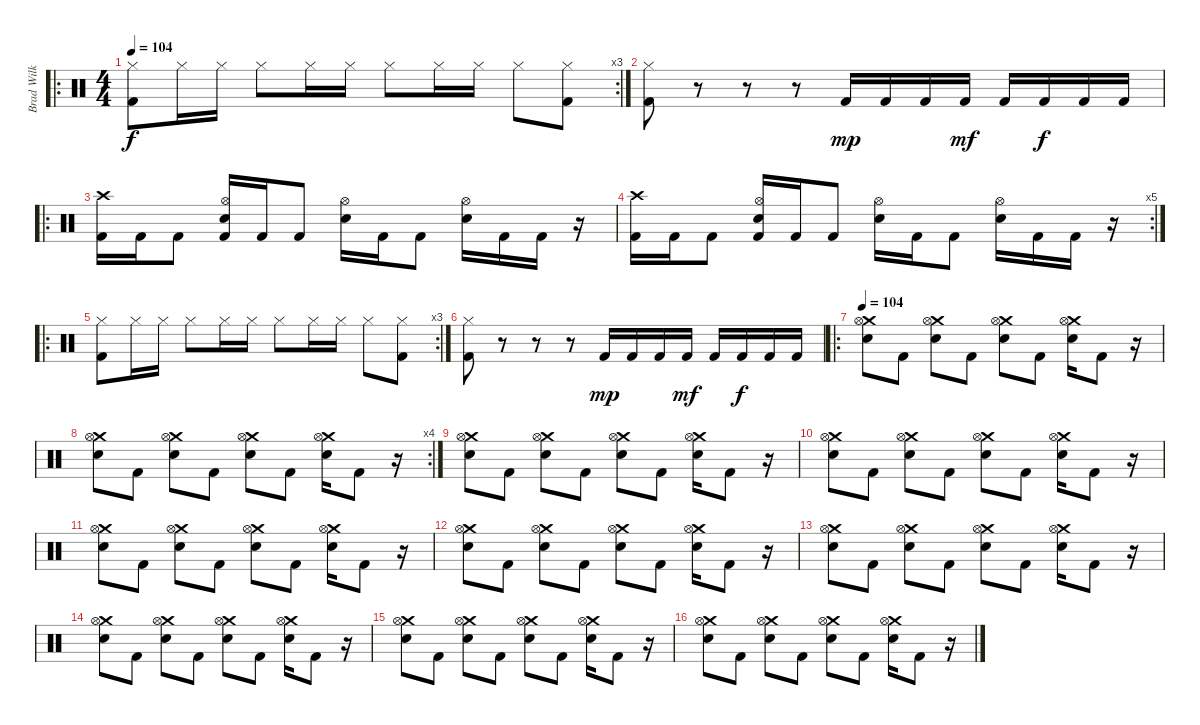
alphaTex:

\track ("Brad Wilk" "Brad Wilk") {instrument percussion}
\staff {score}
\articulation defaults
\ro
\rc 3
\ts (4 4)
\tempo 104
\clef neutral
\ks c
("Hi-Hat (closed)" "Kick (hit) 2").8{dy f} "Hi-Hat (closed)".16 "Hi-Hat (closed)".16 "Hi-Hat (closed)".8 "Hi-Hat (closed)".16 "Hi-Hat (closed)".16 "Hi-Hat (closed)".8 "Hi-Hat (closed)".16 "Hi-Hat (closed)".16 "Hi-Hat (closed)".8 ("Hi-Hat (closed)" "Kick (hit) 2").8 |
("Hi-Hat (closed)" "Kick (hit) 2").8 r.8 r.8 r.8 "Kick (hit) 2".16{dy mp} "Kick (hit) 2".16 "Kick (hit) 2".16 "Kick (hit) 2".16{dy mf} "Kick (hit) 2".16 "Kick (hit) 2".16{dy f} "Kick (hit) 2".16 "Kick (hit) 2".16 |
\ro
("Crash high (hit)" "Kick (hit) 2").16 "Kick (hit) 2".16 "Kick (hit) 2".8 ("Hi-Hat (open)" "Electric Snare (hit)" "Kick (hit) 2").16 "Kick (hit) 2".16 "Kick (hit) 2".8 ("Hi-Hat (open)" "Electric Snare (hit)").16 "Kick (hit) 2".16 "Kick (hit) 2".8 ("Hi-Hat (open)" "Electric Snare (hit)").16 "Kick (hit) 2".16 "Kick (hit) 2".16 r.16 |
\rc 5
("Crash high (hit)" "Kick (hit) 2").16 "Kick (hit) 2".16 "Kick (hit) 2".8 ("Hi-Hat (open)" "Electric Snare (hit)" "Kick (hit) 2").16 "Kick (hit) 2".16 "Kick (hit) 2".8 ("Hi-Hat (open)" "Electric Snare (hit)").16 "Kick (hit) 2".16 "Kick (hit) 2".8 ("Hi-Hat (open)" "Electric Snare (hit)").16 "Kick (hit) 2".16 "Kick (hit) 2".16 r.16 |
\ro
\rc 3
("Hi-Hat (closed)" "Kick (hit) 2").8 "Hi-Hat (closed)".16 "Hi-Hat (closed)".16 "Hi-Hat (closed)".8 "Hi-Hat (closed)".16 "Hi-Hat (closed)".16 "Hi-Hat (closed)".8 "Hi-Hat (closed)".16 "Hi-Hat (closed)".16 "Hi-Hat (closed)".8 ("Hi-Hat (closed)" "Kick (hit) 2").8 |
("Hi-Hat (closed)" "Kick (hit) 2").8 r.8 r.8 r.8 "Kick (hit) 2".16{dy mp} "Kick (hit) 2".16 "Kick (hit) 2".16 "Kick (hit) 2".16{dy mf} "Kick (hit) 2".16 "Kick (hit) 2".16{dy f} "Kick (hit) 2".16 "Kick (hit) 2".16 |
\ro
\tempo 104
("Crash medium (hit)" "Hi-Hat (open)" "Electric Snare (hit)").8 "Kick (hit) 2".8 ("Crash medium (hit)" "Hi-Hat (open)" "Electric Snare (hit)").8 "Kick (hit) 2".8 ("Crash medium (hit)" "Hi-Hat (open)" "Electric Snare (hit)").8 "Kick (hit) 2".8 ("Crash medium (hit)" "Hi-Hat (open)" "Electric Snare (hit)").16 "Kick (hit) 2".8 r.16 |
\rc 4
("Crash medium (hit)" "Hi-Hat (open)" "Electric Snare (hit)").8 "Kick (hit) 2".8 ("Crash medium (hit)" "Hi-Hat (open)" "Electric Snare (hit)").8 "Kick (hit) 2".8 ("Crash medium (hit)" "Hi-Hat (open)" "Electric Snare (hit)").8 "Kick (hit) 2".8 ("Crash medium (hit)" "Hi-Hat (open)" "Electric Snare (hit)").16 "Kick (hit) 2".8 r.16 |
("Crash medium (hit)" "Hi-Hat (open)" "Electric Snare (hit)").8 "Kick (hit) 2".8 ("Crash medium (hit)" "Hi-Hat (open)" "Electric Snare (hit)").8 "Kick (hit) 2".8 ("Crash medium (hit)" "Hi-Hat (open)" "Electric Snare (hit)").8 "Kick (hit) 2".8 ("Crash medium (hit)" "Hi-Hat (open)" "Electric Snare (hit)").16 "Kick (hit) 2".8 r.16 |
("Crash medium (hit)" "Hi-Hat (open)" "Electric Snare (hit)").8 "Kick (hit) 2".8 ("Crash medium (hit)" "Hi-Hat (open)" "Electric Snare (hit)").8 "Kick (hit) 2".8 ("Crash medium (hit)" "Hi-Hat (open)" "Electric Snare (hit)").8 "Kick (hit) 2".8 ("Crash medium (hit)" "Hi-Hat (open)" "Electric Snare (hit)").16 "Kick (hit) 2".8 r.16 |
("Crash medium (hit)" "Hi-Hat (open)" "Electric Snare (hit)").8 "Kick (hit) 2".8 ("Crash medium (hit)" "Hi-Hat (open)" "Electric Snare (hit)").8 "Kick (hit) 2".8 ("Crash medium (hit)" "Hi-Hat (open)" "Electric Snare (hit)").8 "Kick (hit) 2".8 ("Crash medium (hit)" "Hi-Hat (open)" "Electric Snare (hit)").16 "Kick (hit) 2".8 r.16 |
("Crash medium (hit)" "Hi-Hat (open)" "Electric Snare (hit)").8 "Kick (hit) 2".8 ("Crash medium (hit)" "Hi-Hat (open)" "Electric Snare (hit)").8 "Kick (hit) 2".8 ("Crash medium (hit)" "Hi-Hat (open)" "Electric Snare (hit)").8 "Kick (hit) 2".8 ("Crash medium (hit)" "Hi-Hat (open)" "Electric Snare (hit)").16 "Kick (hit) 2".8 r.16 |
("Crash medium (hit)" "Hi-Hat (open)" "Electric Snare (hit)").8 "Kick (hit) 2".8 ("Crash medium (hit)" "Hi-Hat (open)" "Electric Snare (hit)").8 "Kick (hit) 2".8 ("Crash medium (hit)" "Hi-Hat (open)" "Electric Snare (hit)").8 "Kick (hit) 2".8 ("Crash medium (hit)" "Hi-Hat (open)" "Electric Snare (hit)").16 "Kick (hit) 2".8 r.16 |
("Crash medium (hit)" "Hi-Hat (open)" "Electric Snare (hit)").8 "Kick (hit) 2".8 ("Crash medium (hit)" "Hi-Hat (open)" "Electric Snare (hit)").8 "Kick (hit) 2".8 ("Crash medium (hit)" "Hi-Hat (open)" "Electric Snare (hit)").8 "Kick (hit) 2".8 ("Crash medium (hit)" "Hi-Hat (open)" "Electric Snare (hit)").16 "Kick (hit) 2".8 r.16 |
("Crash medium (hit)" "Hi-Hat (open)" "Electric Snare (hit)").8 "Kick (hit) 2".8 ("Crash medium (hit)" "Hi-Hat (open)" "Electric Snare (hit)").8 "Kick (hit) 2".8 ("Crash medium (hit)" "Hi-Hat (open)" "Electric Snare (hit)").8 "Kick (hit) 2".8 ("Crash medium (hit)" "Hi-Hat (open)" "Electric Snare (hit)").16 "Kick (hit) 2".8 r.16 |
("Crash medium (hit)" "Hi-Hat (open)" "Electric Snare (hit)").8 "Kick (hit) 2".8 ("Crash medium (hit)" "Hi-Hat (open)" "Electric Snare (hit)").8 "Kick (hit) 2".8 ("Crash medium (hit)" "Hi-Hat (open)" "Electric Snare (hit)").8 "Kick (hit) 2".8 ("Crash medium (hit)" "Hi-Hat (open)" "Electric Snare (hit)").16 "Kick (hit) 2".8 r.16
